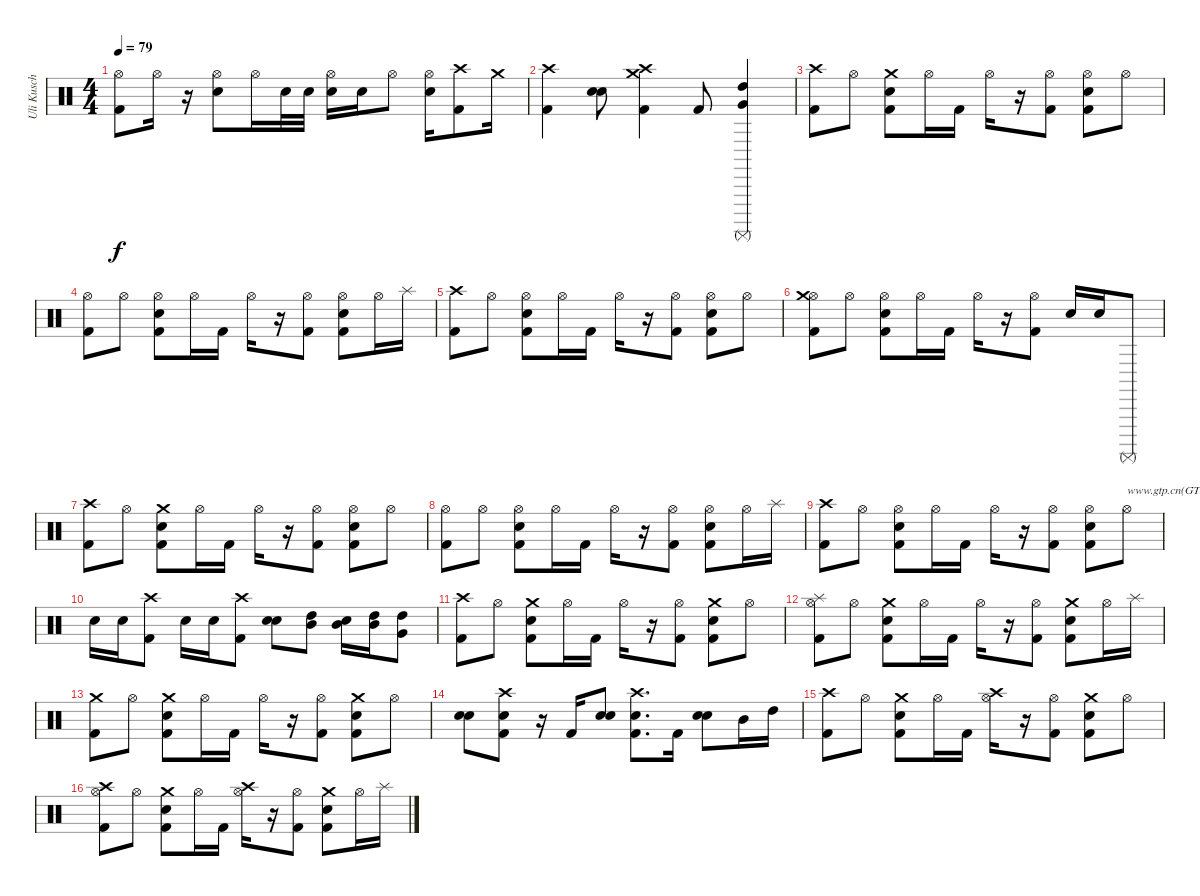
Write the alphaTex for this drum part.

\track ("Uli Kusch" "Uli Kusch") {instrument percussion}
\staff {score}
\articulation defaults
\ts (4 4)
\tempo 79
\clef neutral
\ks c
("Hi-Hat (open)" "Kick (hit) 2").8{dy f} "Hi-Hat (open)".16 r.16 ("Snare (hit) 2" "Hi-Hat (open)").8 "Hi-Hat (open)".16 "Snare (hit) 2".32 "Snare (hit) 2".32 ("Snare (hit) 2" "Hi-Hat (open)").16 "Snare (hit) 2".16 "Hi-Hat (open)".8 ("Snare (hit) 2" "Hi-Hat (open)").16 ("Crash high (hit)" "Kick (hit) 2").8 "Crash medium (hit)".16 |
("Crash high (hit)" "Kick (hit) 2").4 ("Snare (hit) 2" "Snare (hit) 2").8{bd 60} ("Crash high (hit)" "Kick (hit) 2" "Crash medium (hit)").4 "Kick (hit) 2".8 ("Surdo (mute)" "Very Low Tom (hit)" "High Tom (hit)").4 |
("Kick (hit) 2" "Crash high (hit)").8 "Hi-Hat (open)".8 ("Snare (hit) 2" "Kick (hit) 2" "Crash medium (hit)").8 "Hi-Hat (open)".16 "Kick (hit) 2".16 "Hi-Hat (open)".16 r.16 ("Kick (hit) 2" "Hi-Hat (open)").8 ("Kick (hit) 2" "Hi-Hat (open)" "Snare (hit) 2").8 "Hi-Hat (open)".8 |
("Kick (hit) 2" "Hi-Hat (open)").8 "Hi-Hat (open)".8 ("Snare (hit) 2" "Kick (hit) 2" "Hi-Hat (open)").8 "Hi-Hat (open)".16 "Kick (hit) 2".16 "Hi-Hat (open)".16 r.16 ("Kick (hit) 2" "Hi-Hat (open)").8 ("Kick (hit) 2" "Snare (hit) 2" "Hi-Hat (open)").8 "Hi-Hat (open)".16 "Splash (hit)".16 |
("Kick (hit) 2" "Crash high (hit)").8 "Hi-Hat (open)".8 ("Snare (hit) 2" "Kick (hit) 2" "Hi-Hat (open)").8 "Hi-Hat (open)".16 "Kick (hit) 2".16 "Hi-Hat (open)".16 r.16 ("Kick (hit) 2" "Hi-Hat (open)").8 ("Kick (hit) 2" "Snare (hit) 2" "Hi-Hat (open)").8 "Hi-Hat (open)".8 |
("Kick (hit) 2" "Hi-Hat (open)" "Crash medium (hit)").8 "Hi-Hat (open)".8 ("Snare (hit) 2" "Kick (hit) 2" "Hi-Hat (open)").8 "Hi-Hat (open)".16 "Kick (hit) 2".16 "Hi-Hat (open)".16 r.16 ("Kick (hit) 2" "Hi-Hat (open)").8 "Snare (hit) 2".16 "Snare (hit) 2".16 "Surdo (mute)".8 |
("Kick (hit) 2" "Crash high (hit)").8 "Hi-Hat (open)".8 ("Snare (hit) 2" "Kick (hit) 2" "Crash medium (hit)").8 "Hi-Hat (open)".16 "Kick (hit) 2".16 "Hi-Hat (open)".16 r.16 ("Kick (hit) 2" "Hi-Hat (open)").8 ("Kick (hit) 2" "Hi-Hat (open)" "Snare (hit) 2").8 "Hi-Hat (open)".8 |
("Kick (hit) 2" "Hi-Hat (open)").8 "Hi-Hat (open)".8 ("Snare (hit) 2" "Kick (hit) 2" "Hi-Hat (open)").8 "Hi-Hat (open)".16 "Kick (hit) 2".16 "Hi-Hat (open)".16 r.16 ("Kick (hit) 2" "Hi-Hat (open)").8 ("Kick (hit) 2" "Snare (hit) 2" "Hi-Hat (open)").8 "Hi-Hat (open)".16 "Splash (hit)".16 |
("Kick (hit) 2" "Crash high (hit)").8 "Hi-Hat (open)".8 ("Snare (hit) 2" "Kick (hit) 2" "Hi-Hat (open)").8 "Hi-Hat (open)".16 "Kick (hit) 2".16 "Hi-Hat (open)".16 r.16 ("Kick (hit) 2" "Hi-Hat (open)").8 ("Kick (hit) 2" "Snare (hit) 2" "Hi-Hat (open)").8 "Hi-Hat (open)".8{txt "www.gtp.cn(GTP中文网)您提供优秀的GTP"} |
"Snare (hit) 2".16 "Snare (hit) 2".16 ("Crash high (hit)" "Kick (hit) 2").8 "Snare (hit) 2".16 "Snare (hit) 2".16 ("Crash high (hit)" "Kick (hit) 2").8 ("Snare (hit) 2" "Snare (hit) 2").8{bd 60} ("Mid Tom (hit)" "High Tom (hit)").8 ("Mid Tom (hit)" "Snare (hit) 2").16 ("High Tom (hit)" "Mid Tom (hit)").16 ("Very Low Tom (hit)" "High Tom (hit)").8 |
("Kick (hit) 2" "Crash high (hit)").8 "Hi-Hat (open)".8 ("Snare (hit) 2" "Kick (hit) 2" "Crash medium (hit)").8 "Hi-Hat (open)".16 "Kick (hit) 2".16 "Hi-Hat (open)".16 r.16 ("Kick (hit) 2" "Hi-Hat (open)").8 ("Kick (hit) 2" "Snare (hit) 2" "Crash medium (hit)").8 "Hi-Hat (open)".8 |
("Kick (hit) 2" "Hi-Hat (open)" "Splash (hit)").8 "Hi-Hat (open)".8 ("Snare (hit) 2" "Kick (hit) 2" "Crash medium (hit)").8 "Hi-Hat (open)".16 "Kick (hit) 2".16 "Hi-Hat (open)".16 r.16 ("Kick (hit) 2" "Hi-Hat (open)").8 ("Kick (hit) 2" "Snare (hit) 2" "Crash medium (hit)").8 "Hi-Hat (open)".16 "Splash (hit)".16 |
("Kick (hit) 2" "Crash medium (hit)").8 "Hi-Hat (open)".8 ("Snare (hit) 2" "Kick (hit) 2" "Crash medium (hit)").8 "Hi-Hat (open)".16 "Kick (hit) 2".16 "Hi-Hat (open)".16 r.16 ("Kick (hit) 2" "Hi-Hat (open)").8 ("Kick (hit) 2" "Snare (hit) 2" "Crash medium (hit)").8 "Hi-Hat (open)".8 |
("Snare (hit) 2" "Snare (hit) 2").8{bd 240} ("Kick (hit) 2" "Snare (hit) 2" "Crash high (hit)").8 r.16 "Kick (hit) 2".16 ("Snare (hit) 2" "Snare (hit) 2").8{bd 240} ("Crash high (hit)" "Snare (hit) 2" "Kick (hit) 2").8{d} "Kick (hit) 2".16 ("Snare (hit) 2" "Snare (hit) 2").8{bd 60} "Mid Tom (hit)".16 "High Tom (hit)".16 |
("Kick (hit) 2" "Crash high (hit)").8 "Hi-Hat (open)".8 ("Snare (hit) 2" "Kick (hit) 2" "Crash medium (hit)").8 "Hi-Hat (open)".16 "Kick (hit) 2".16 ("Hi-Hat (open)" "Crash high (hit)").16 r.16 ("Kick (hit) 2" "Hi-Hat (open)").8 ("Kick (hit) 2" "Snare (hit) 2" "Crash medium (hit)").8 "Hi-Hat (open)".8 |
("Kick (hit) 2" "Hi-Hat (open)" "Crash high (hit)").8 "Hi-Hat (open)".8 ("Snare (hit) 2" "Kick (hit) 2" "Crash medium (hit)").8 "Hi-Hat (open)".16 "Kick (hit) 2".16 ("Hi-Hat (open)" "Crash high (hit)").16 r.16 ("Kick (hit) 2" "Hi-Hat (open)").8 ("Kick (hit) 2" "Snare (hit) 2" "Crash medium (hit)").8 "Hi-Hat (open)".16 "Splash (hit)".16
